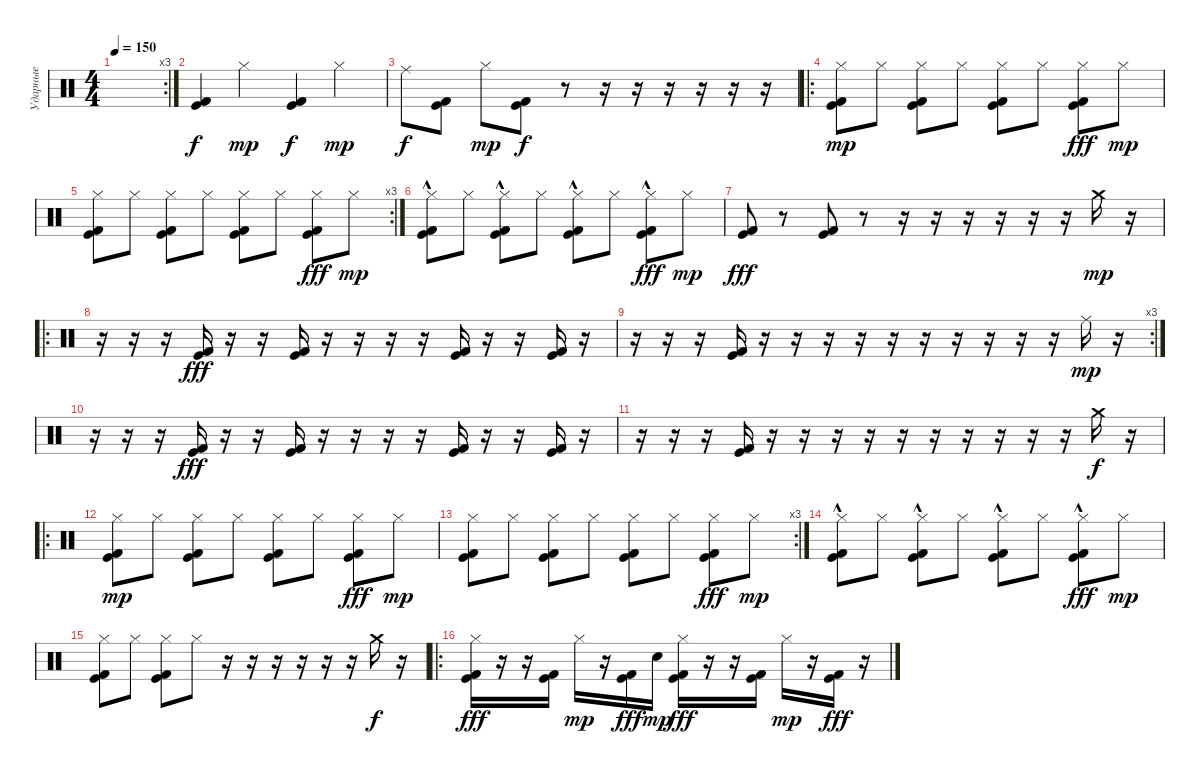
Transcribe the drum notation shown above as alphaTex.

\track ("Ударные" "Ударные") {instrument percussion}
\staff {score}
\articulation defaults
\rc 3
\ts (4 4)
\tempo 150
\clef neutral
\ks c
|
("Kick (hit) 2" "Kick (hit)").4{dy f} "Hi-Hat (closed)".4{dy mp} ("Kick (hit) 2" "Kick (hit)").4{dy f} "Hi-Hat (closed)".4{dy mp} |
"Ride (middle)".8{dy f} ("Kick (hit)" "Kick (hit) 2").8 "Hi-Hat (closed)".8{dy mp} ("Kick (hit)" "Kick (hit) 2").8{dy f} r.8 r.16 r.16 r.16 r.16 r.16 r.16 |
\ro
("Kick (hit) 2" "Kick (hit)" "Hi-Hat (closed)").8{dy mp} "Hi-Hat (closed)".8 ("Kick (hit)" "Kick (hit) 2" "Hi-Hat (closed)").8 "Hi-Hat (closed)".8 ("Kick (hit) 2" "Kick (hit)" "Hi-Hat (closed)").8 "Hi-Hat (closed)".8 ("Hi-Hat (closed)" "Kick (hit)" "Kick (hit) 2").8{dy fff} "Hi-Hat (closed)".8{dy mp} |
\rc 3
("Kick (hit) 2" "Kick (hit)" "Hi-Hat (closed)").8 "Hi-Hat (closed)".8 ("Kick (hit)" "Kick (hit) 2" "Hi-Hat (closed)").8 "Hi-Hat (closed)".8 ("Kick (hit) 2" "Kick (hit)" "Hi-Hat (closed)").8 "Hi-Hat (closed)".8 ("Hi-Hat (closed)" "Kick (hit)" "Kick (hit) 2").8{dy fff} "Hi-Hat (closed)".8{dy mp} |
("Kick (hit) 2"{hac} "Kick (hit)"{hac} "Hi-Hat (closed)").8 "Hi-Hat (closed)".8 ("Kick (hit)"{hac} "Kick (hit) 2"{hac} "Hi-Hat (closed)").8 "Hi-Hat (closed)".8 ("Kick (hit) 2"{hac} "Kick (hit)"{hac} "Hi-Hat (closed)").8 "Hi-Hat (closed)".8 ("Hi-Hat (closed)" "Kick (hit)"{hac} "Kick (hit) 2"{hac}).8{dy fff} "Hi-Hat (closed)".8{dy mp} |
("Kick (hit) 2" "Kick (hit)").8{dy fff} r.8 ("Kick (hit)" "Kick (hit) 2").8 r.8 r.16 r.16 r.16 r.16 r.16 r.16 "Crash medium (hit)".16{dy mp} r.16 |
\ro
r.16 r.16 r.16 ("Kick (hit) 2" "Kick (hit)").16{dy fff} r.16 r.16 ("Kick (hit) 2" "Kick (hit)").16 r.16 r.16 r.16 r.16 ("Kick (hit) 2" "Kick (hit)").16 r.16 r.16 ("Kick (hit)" "Kick (hit) 2").16 r.16 |
\rc 3
r.16 r.16 r.16 ("Kick (hit) 2" "Kick (hit)").16 r.16 r.16 r.16 r.16 r.16 r.16 r.16 r.16 r.16 r.16 "Ride (middle)".16{dy mp} r.16 |
r.16 r.16 r.16 ("Kick (hit) 2" "Kick (hit)").16{dy fff} r.16 r.16 ("Kick (hit) 2" "Kick (hit)").16 r.16 r.16 r.16 r.16 ("Kick (hit) 2" "Kick (hit)").16 r.16 r.16 ("Kick (hit)" "Kick (hit) 2").16 r.16 |
r.16 r.16 r.16 ("Kick (hit) 2" "Kick (hit)").16 r.16 r.16 r.16 r.16 r.16 r.16 r.16 r.16 r.16 r.16 "Crash medium (hit)".16{dy f} r.16 |
\ro
("Kick (hit) 2" "Kick (hit)" "Hi-Hat (closed)").8{dy mp} "Hi-Hat (closed)".8 ("Kick (hit)" "Kick (hit) 2" "Hi-Hat (closed)").8 "Hi-Hat (closed)".8 ("Kick (hit) 2" "Kick (hit)" "Hi-Hat (closed)").8 "Hi-Hat (closed)".8 ("Hi-Hat (closed)" "Kick (hit)" "Kick (hit) 2").8{dy fff} "Hi-Hat (closed)".8{dy mp} |
\rc 3
("Kick (hit) 2" "Kick (hit)" "Hi-Hat (closed)").8 "Hi-Hat (closed)".8 ("Kick (hit)" "Kick (hit) 2" "Hi-Hat (closed)").8 "Hi-Hat (closed)".8 ("Kick (hit) 2" "Kick (hit)" "Hi-Hat (closed)").8 "Hi-Hat (closed)".8 ("Hi-Hat (closed)" "Kick (hit)" "Kick (hit) 2").8{dy fff} "Hi-Hat (closed)".8{dy mp} |
("Kick (hit) 2"{hac} "Kick (hit)"{hac} "Hi-Hat (closed)").8 "Hi-Hat (closed)".8 ("Kick (hit)"{hac} "Kick (hit) 2"{hac} "Hi-Hat (closed)").8 "Hi-Hat (closed)".8 ("Kick (hit) 2"{hac} "Kick (hit)"{hac} "Hi-Hat (closed)").8 "Hi-Hat (closed)".8 ("Hi-Hat (closed)" "Kick (hit)"{hac} "Kick (hit) 2"{hac}).8{dy fff} "Hi-Hat (closed)".8{dy mp} |
("Kick (hit) 2" "Kick (hit)" "Hi-Hat (closed)").8 "Hi-Hat (closed)".8 ("Kick (hit)" "Kick (hit) 2" "Hi-Hat (closed)").8 "Hi-Hat (closed)".8 r.16 r.16 r.16 r.16 r.16 r.16 "Crash medium (hit)".16{dy f} r.16 |
\ro
("Hi-Hat (closed)" "Kick (hit) 2" "Kick (hit)").16{dy fff} r.16 r.16 ("Kick (hit) 2" "Kick (hit)").16 "Hi-Hat (closed)".16{dy mp} r.16 ("Kick (hit) 2" "Kick (hit)").16{dy fff} "Snare (hit)".16{dy mp} ("Hi-Hat (closed)" "Kick (hit) 2" "Kick (hit)").16{dy fff} r.16 r.16 ("Kick (hit) 2" "Kick (hit)").16 "Hi-Hat (closed)".16{dy mp} r.16 ("Kick (hit) 2" "Kick (hit)").16{dy fff} r.16
